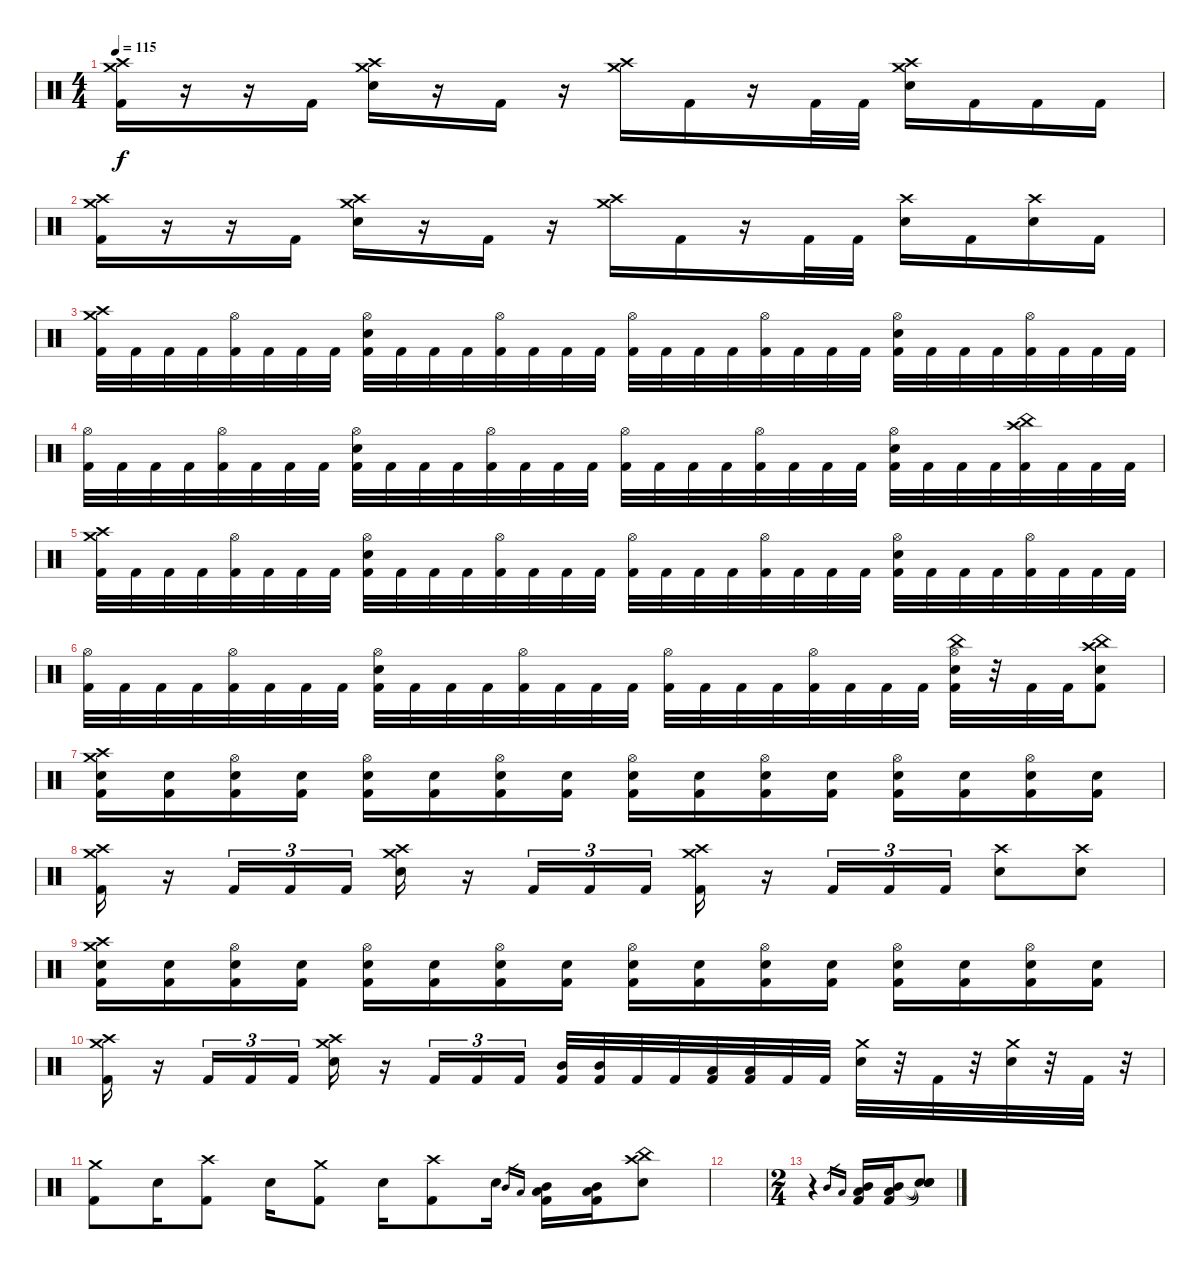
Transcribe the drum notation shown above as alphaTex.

\track "" {instrument percussion}
\staff {score}
\articulation defaults
\ts (4 4)
\tempo 115
\clef neutral
\ks c
("Kick (hit) 2" "Crash high (hit)" "Crash medium (hit)").16{dy f} r.16 r.16 "Kick (hit) 2".16 ("Electric Snare (hit)" "Crash high (hit)" "Crash medium (hit)").16 r.16 "Kick (hit) 2".16 r.16 ("Crash high (hit)" "Crash medium (hit)").16 "Kick (hit) 2".16 r.16 "Kick (hit) 2".32 "Kick (hit) 2".32 ("Electric Snare (hit)" "Crash high (hit)" "Crash medium (hit)").16 "Kick (hit) 2".16 "Kick (hit) 2".16 "Kick (hit) 2".16 |
("Kick (hit) 2" "Crash high (hit)" "Crash medium (hit)").16 r.16 r.16 "Kick (hit) 2".16 ("Electric Snare (hit)" "Crash high (hit)" "Crash medium (hit)").16 r.16 "Kick (hit) 2".16 r.16 ("Crash high (hit)" "Crash medium (hit)").16 "Kick (hit) 2".16 r.16 "Kick (hit) 2".32 "Kick (hit) 2".32 ("Electric Snare (hit)" "Crash high (hit)").16 "Kick (hit) 2".16 ("Electric Snare (hit)" "Crash high (hit)").16 "Kick (hit) 2".16 |
("Kick (hit) 2" "Crash high (hit)" "Crash medium (hit)").32 "Kick (hit) 2".32 "Kick (hit) 2".32 "Kick (hit) 2".32 ("Kick (hit) 2" "Hi-Hat (open)").32 "Kick (hit) 2".32 "Kick (hit) 2".32 "Kick (hit) 2".32 ("Kick (hit) 2" "Electric Snare (hit)" "Hi-Hat (open)").32 "Kick (hit) 2".32 "Kick (hit) 2".32 "Kick (hit) 2".32 ("Kick (hit) 2" "Hi-Hat (open)").32 "Kick (hit) 2".32 "Kick (hit) 2".32 "Kick (hit) 2".32 ("Kick (hit) 2" "Hi-Hat (open)").32 "Kick (hit) 2".32 "Kick (hit) 2".32 "Kick (hit) 2".32 ("Kick (hit) 2" "Hi-Hat (open)").32 "Kick (hit) 2".32 "Kick (hit) 2".32 "Kick (hit) 2".32 ("Kick (hit) 2" "Electric Snare (hit)" "Hi-Hat (open)").32 "Kick (hit) 2".32 "Kick (hit) 2".32 "Kick (hit) 2".32 ("Kick (hit) 2" "Hi-Hat (open)").32 "Kick (hit) 2".32 "Kick (hit) 2".32 "Kick (hit) 2".32 |
("Kick (hit) 2" "Hi-Hat (open)").32 "Kick (hit) 2".32 "Kick (hit) 2".32 "Kick (hit) 2".32 ("Kick (hit) 2" "Hi-Hat (open)").32 "Kick (hit) 2".32 "Kick (hit) 2".32 "Kick (hit) 2".32 ("Kick (hit) 2" "Electric Snare (hit)" "Hi-Hat (open)").32 "Kick (hit) 2".32 "Kick (hit) 2".32 "Kick (hit) 2".32 ("Kick (hit) 2" "Hi-Hat (open)").32 "Kick (hit) 2".32 "Kick (hit) 2".32 "Kick (hit) 2".32 ("Kick (hit) 2" "Hi-Hat (open)").32 "Kick (hit) 2".32 "Kick (hit) 2".32 "Kick (hit) 2".32 ("Kick (hit) 2" "Hi-Hat (open)").32 "Kick (hit) 2".32 "Kick (hit) 2".32 "Kick (hit) 2".32 ("Kick (hit) 2" "Electric Snare (hit)" "Hi-Hat (open)").32 "Kick (hit) 2".32 "Kick (hit) 2".32 "Kick (hit) 2".32 ("Kick (hit) 2" "Crash high (hit)" "China (hit)").32 "Kick (hit) 2".32 "Kick (hit) 2".32 "Kick (hit) 2".32 |
("Kick (hit) 2" "Crash high (hit)" "Crash medium (hit)").32 "Kick (hit) 2".32 "Kick (hit) 2".32 "Kick (hit) 2".32 ("Kick (hit) 2" "Hi-Hat (open)").32 "Kick (hit) 2".32 "Kick (hit) 2".32 "Kick (hit) 2".32 ("Kick (hit) 2" "Electric Snare (hit)" "Hi-Hat (open)").32 "Kick (hit) 2".32 "Kick (hit) 2".32 "Kick (hit) 2".32 ("Kick (hit) 2" "Hi-Hat (open)").32 "Kick (hit) 2".32 "Kick (hit) 2".32 "Kick (hit) 2".32 ("Kick (hit) 2" "Hi-Hat (open)").32 "Kick (hit) 2".32 "Kick (hit) 2".32 "Kick (hit) 2".32 ("Kick (hit) 2" "Hi-Hat (open)").32 "Kick (hit) 2".32 "Kick (hit) 2".32 "Kick (hit) 2".32 ("Kick (hit) 2" "Electric Snare (hit)" "Hi-Hat (open)").32 "Kick (hit) 2".32 "Kick (hit) 2".32 "Kick (hit) 2".32 ("Kick (hit) 2" "Hi-Hat (open)").32 "Kick (hit) 2".32 "Kick (hit) 2".32 "Kick (hit) 2".32 |
("Kick (hit) 2" "Hi-Hat (open)").32 "Kick (hit) 2".32 "Kick (hit) 2".32 "Kick (hit) 2".32 ("Kick (hit) 2" "Hi-Hat (open)").32 "Kick (hit) 2".32 "Kick (hit) 2".32 "Kick (hit) 2".32 ("Kick (hit) 2" "Electric Snare (hit)" "Hi-Hat (open)").32 "Kick (hit) 2".32 "Kick (hit) 2".32 "Kick (hit) 2".32 ("Kick (hit) 2" "Hi-Hat (open)").32 "Kick (hit) 2".32 "Kick (hit) 2".32 "Kick (hit) 2".32 ("Kick (hit) 2" "Hi-Hat (open)").32 "Kick (hit) 2".32 "Kick (hit) 2".32 "Kick (hit) 2".32 ("Kick (hit) 2" "Hi-Hat (open)").32 "Kick (hit) 2".32 "Kick (hit) 2".32 "Kick (hit) 2".32 ("Kick (hit) 2" "Electric Snare (hit)" "China (hit)" "Hi-Hat (open)").32 r.32 "Kick (hit) 2".32 "Kick (hit) 2".32 ("Kick (hit) 2" "Electric Snare (hit)" "Crash high (hit)" "China (hit)").8 |
("Kick (hit) 2" "Electric Snare (hit)" "Crash high (hit)" "Crash medium (hit)").16 ("Kick (hit) 2" "Electric Snare (hit)").16 ("Kick (hit) 2" "Electric Snare (hit)" "Hi-Hat (open)").16 ("Kick (hit) 2" "Electric Snare (hit)").16 ("Kick (hit) 2" "Electric Snare (hit)" "Hi-Hat (open)").16 ("Kick (hit) 2" "Electric Snare (hit)").16 ("Kick (hit) 2" "Electric Snare (hit)" "Hi-Hat (open)").16 ("Kick (hit) 2" "Electric Snare (hit)").16 ("Kick (hit) 2" "Electric Snare (hit)" "Hi-Hat (open)").16 ("Kick (hit) 2" "Electric Snare (hit)").16 ("Kick (hit) 2" "Electric Snare (hit)" "Hi-Hat (open)").16 ("Kick (hit) 2" "Electric Snare (hit)").16 ("Kick (hit) 2" "Electric Snare (hit)" "Hi-Hat (open)").16 ("Kick (hit) 2" "Electric Snare (hit)").16 ("Kick (hit) 2" "Electric Snare (hit)" "Hi-Hat (open)").16 ("Kick (hit) 2" "Electric Snare (hit)").16 |
("Kick (hit) 2" "Crash high (hit)" "Crash medium (hit)").16 r.16 "Kick (hit) 2".16{tu (3 2)} "Kick (hit) 2".16{tu (3 2)} "Kick (hit) 2".16{tu (3 2)} ("Electric Snare (hit)" "Crash high (hit)" "Crash medium (hit)").16 r.16 "Kick (hit) 2".16{tu (3 2)} "Kick (hit) 2".16{tu (3 2)} "Kick (hit) 2".16{tu (3 2)} ("Kick (hit) 2" "Crash high (hit)" "Crash medium (hit)").16 r.16 "Kick (hit) 2".16{tu (3 2)} "Kick (hit) 2".16{tu (3 2)} "Kick (hit) 2".16{tu (3 2)} ("Electric Snare (hit)" "Crash high (hit)").8 ("Electric Snare (hit)" "Crash high (hit)").8 |
("Kick (hit) 2" "Electric Snare (hit)" "Crash high (hit)" "Crash medium (hit)").16 ("Kick (hit) 2" "Electric Snare (hit)").16 ("Kick (hit) 2" "Electric Snare (hit)" "Hi-Hat (open)").16 ("Kick (hit) 2" "Electric Snare (hit)").16 ("Kick (hit) 2" "Electric Snare (hit)" "Hi-Hat (open)").16 ("Kick (hit) 2" "Electric Snare (hit)").16 ("Kick (hit) 2" "Electric Snare (hit)" "Hi-Hat (open)").16 ("Kick (hit) 2" "Electric Snare (hit)").16 ("Kick (hit) 2" "Electric Snare (hit)" "Hi-Hat (open)").16 ("Kick (hit) 2" "Electric Snare (hit)").16 ("Kick (hit) 2" "Electric Snare (hit)" "Hi-Hat (open)").16 ("Kick (hit) 2" "Electric Snare (hit)").16 ("Kick (hit) 2" "Electric Snare (hit)" "Hi-Hat (open)").16 ("Kick (hit) 2" "Electric Snare (hit)").16 ("Kick (hit) 2" "Electric Snare (hit)" "Hi-Hat (open)").16 ("Kick (hit) 2" "Electric Snare (hit)").16 |
("Kick (hit) 2" "Crash high (hit)" "Crash medium (hit)").16 r.16 "Kick (hit) 2".16{tu (3 2)} "Kick (hit) 2".16{tu (3 2)} "Kick (hit) 2".16{tu (3 2)} ("Electric Snare (hit)" "Crash high (hit)" "Crash medium (hit)").16 r.16 "Kick (hit) 2".16{tu (3 2)} "Kick (hit) 2".16{tu (3 2)} "Kick (hit) 2".16{tu (3 2)} ("Kick (hit) 2" "Mid Tom (hit)").32 ("Kick (hit) 2" "Mid Tom (hit)").32 "Kick (hit) 2".32 "Kick (hit) 2".32 ("Kick (hit) 2" "Low Tom (hit)").32 ("Kick (hit) 2" "Low Tom (hit)").32 "Kick (hit) 2".32 "Kick (hit) 2".32 ("Electric Snare (hit)" "Crash medium (hit)").32 r.32 "Kick (hit) 2".32 r.32 ("Electric Snare (hit)" "Crash medium (hit)").32 r.32 "Kick (hit) 2".32 r.32 |
("Kick (hit) 2" "Crash medium (hit)").8 "Electric Snare (hit)".16 ("Kick (hit) 2" "Crash high (hit)").8 "Electric Snare (hit)".16 ("Kick (hit) 2" "Crash medium (hit)").8 "Electric Snare (hit)".16 ("Kick (hit) 2" "Crash high (hit)").8 "Electric Snare (hit)".16 "Mid Tom (hit)".16{gr} "Low Tom (hit)".16{gr} ("Kick (hit) 2" "Mid Tom (hit)" "Low Tom (hit)").16 ("Kick (hit) 2" "Mid Tom (hit)" "Low Tom (hit)").16 ("Electric Snare (hit)" "China (hit)" "Crash high (hit)").8 |
|
\ts (2 4)
r.4 "Mid Tom (hit)".16{gr} "Low Tom (hit)".16{gr} ("Mid Tom (hit)" "Low Tom (hit)" "Kick (hit) 2").16 ("Mid Tom (hit)" "Low Tom (hit)" "Kick (hit) 2").16 ("Snare (hit)"{t} "Snare (hit)"{t} "Snare (hit)"{t}).8
